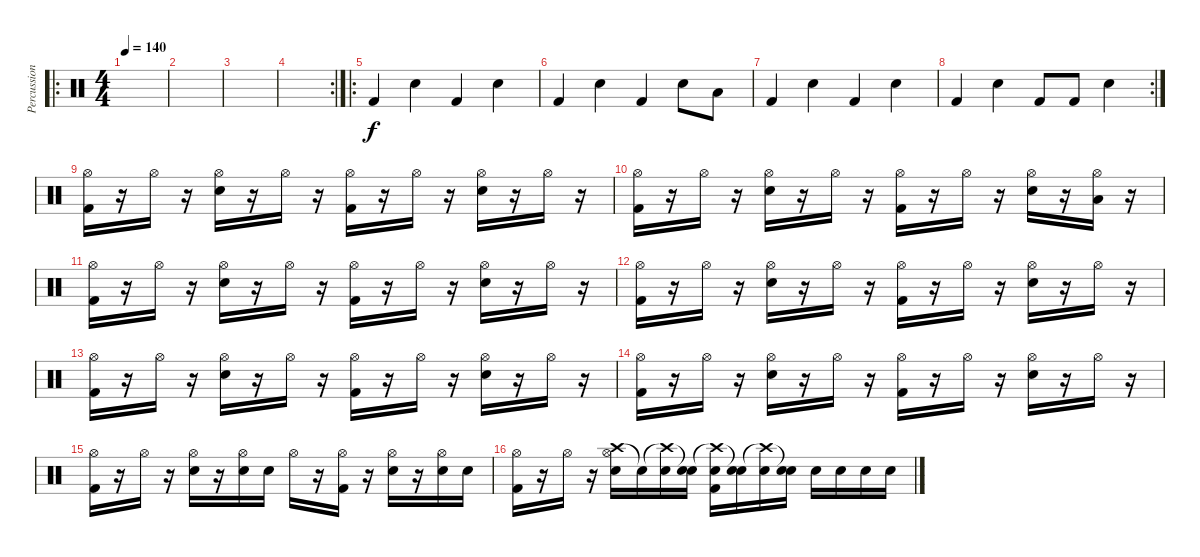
\track ("Percussion" "Percussion") {instrument percussion}
\staff {score}
\articulation defaults
\ro
\ts (4 4)
\tempo 140
\clef neutral
\ks c
|
|
|
\rc 2
|
\ro "Kick (hit) 2".4 "Electric Snare (hit)".4 "Kick (hit) 2".4 "Electric Snare (hit)".4
|
"Kick (hit) 2".4 "Electric Snare (hit)".4 "Kick (hit) 2".4 "Electric Snare (hit)".8 "Low Floor Tom (hit)".8 |
"Kick (hit) 2".4 "Electric Snare (hit)".4 "Kick (hit) 2".4 "Electric Snare (hit)".4 |
\rc 2 "Kick (hit) 2".4 "Electric Snare (hit)".4 "Kick (hit) 2".8 "Kick (hit) 2".8 "Electric Snare (hit)".4
|
("Hi-Hat (open)" "Kick (hit) 2").16 r.16 "Hi-Hat (open)".16 r.16 ("Hi-Hat (open)" "Electric Snare (hit)").16 r.16 "Hi-Hat (open)".16 r.16 ("Hi-Hat (open)" "Kick (hit) 2").16 r.16 "Hi-Hat (open)".16 r.16 ("Hi-Hat (open)" "Electric Snare (hit)").16 r.16 "Hi-Hat (open)".16 r.16 |
("Hi-Hat (open)" "Kick (hit) 2").16 r.16 "Hi-Hat (open)".16 r.16 ("Hi-Hat (open)" "Electric Snare (hit)").16 r.16 "Hi-Hat (open)".16 r.16 ("Hi-Hat (open)" "Kick (hit) 2").16 r.16 "Hi-Hat (open)".16 r.16 ("Hi-Hat (open)" "Electric Snare (hit)").16 r.16 ("Hi-Hat (open)" "Low Floor Tom (hit)").16 r.16 |
("Hi-Hat (open)" "Kick (hit) 2").16 r.16 "Hi-Hat (open)".16 r.16 ("Hi-Hat (open)" "Electric Snare (hit)").16 r.16 "Hi-Hat (open)".16 r.16 ("Hi-Hat (open)" "Kick (hit) 2").16 r.16 "Hi-Hat (open)".16 r.16 ("Hi-Hat (open)" "Electric Snare (hit)").16 r.16 "Hi-Hat (open)".16 r.16 |
("Hi-Hat (open)" "Kick (hit) 2").16 r.16 "Hi-Hat (open)".16 r.16 ("Hi-Hat (open)" "Electric Snare (hit)").16 r.16 "Hi-Hat (open)".16 r.16 ("Hi-Hat (open)" "Kick (hit) 2").16 r.16 "Hi-Hat (open)".16 r.16 ("Hi-Hat (open)" "Electric Snare (hit)").16 r.16 "Hi-Hat (open)".16 r.16 |
("Hi-Hat (open)" "Kick (hit) 2").16 r.16 "Hi-Hat (open)".16 r.16 ("Hi-Hat (open)" "Electric Snare (hit)").16 r.16 "Hi-Hat (open)".16 r.16 ("Hi-Hat (open)" "Kick (hit) 2").16 r.16 "Hi-Hat (open)".16 r.16 ("Hi-Hat (open)" "Electric Snare (hit)").16 r.16 "Hi-Hat (open)".16 r.16 |
("Hi-Hat (open)" "Kick (hit) 2").16 r.16 "Hi-Hat (open)".16 r.16 ("Hi-Hat (open)" "Electric Snare (hit)").16 r.16 "Hi-Hat (open)".16 r.16 ("Hi-Hat (open)" "Kick (hit) 2").16 r.16 "Hi-Hat (open)".16 r.16 ("Hi-Hat (open)" "Electric Snare (hit)").16 r.16 "Hi-Hat (open)".16 r.16 |
("Hi-Hat (open)" "Kick (hit) 2").16 r.16 "Hi-Hat (open)".16 r.16 ("Hi-Hat (open)" "Electric Snare (hit)").16 r.16 ("Hi-Hat (open)" "Electric Snare (hit)").16 "Electric Snare (hit)".16 "Hi-Hat (open)".16 r.16 ("Hi-Hat (open)" "Kick (hit) 2").16 r.16 ("Hi-Hat (open)" "Electric Snare (hit)").16 r.16 ("Hi-Hat (open)" "Electric Snare (hit)").16 "Electric Snare (hit)".16 |
("Hi-Hat (open)" "Kick (hit) 2").16 r.16 "Hi-Hat (open)".16 r.16 ("Crash high (hit)" "Hi-Hat (open)" "Electric Snare (hit)").16 "Snare (hit)"{t}.16 ("Crash high (hit)"{t} "Electric Snare (hit)").16 ("Snare (hit)"{t} "Electric Snare (hit)").16 ("Crash high (hit)"{t} "Electric Snare (hit)" "Kick (hit) 2").16 ("Snare (hit)"{t} "Electric Snare (hit)").16 ("Crash high (hit)"{t} "Electric Snare (hit)").16 ("Snare (hit)"{t} "Electric Snare (hit)").16 "Electric Snare (hit)".16 "Electric Snare (hit)".16 "Electric Snare (hit)".16 "Electric Snare (hit)".16
